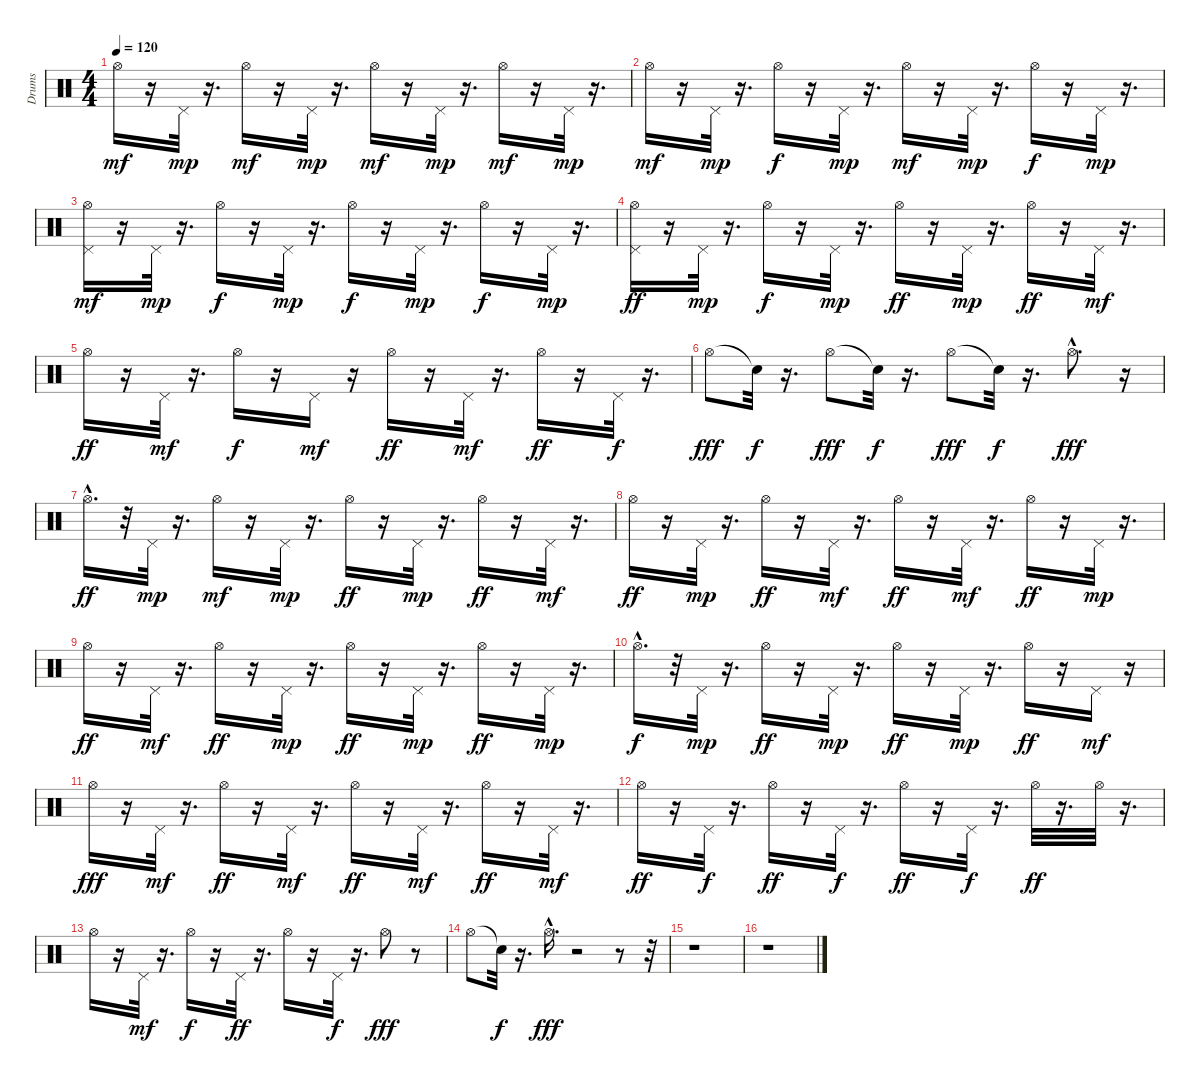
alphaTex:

\track ("Drums" "Drums") {instrument percussion}
\staff {score}
\articulation defaults
\ts (4 4)
\tempo 120
\clef neutral
\ks c "Hi-Hat (open)".16{dy mf}
r.16 "Pedal Hi-Hat (hit)".32{dy mp} r.16{d} "Hi-Hat (open)".16{dy mf} r.16 "Pedal Hi-Hat (hit)".32{dy mp} r.16{d} "Hi-Hat (open)".16{dy mf} r.16 "Pedal Hi-Hat (hit)".32{dy mp} r.16{d} "Hi-Hat (open)".16{dy mf} r.16 "Pedal Hi-Hat (hit)".32{dy mp} r.16{d} |
"Hi-Hat (open)".16{dy mf} r.16 "Pedal Hi-Hat (hit)".32{dy mp} r.16{d} "Hi-Hat (open)".16{dy f} r.16 "Pedal Hi-Hat (hit)".32{dy mp} r.16{d} "Hi-Hat (open)".16{dy mf} r.16 "Pedal Hi-Hat (hit)".32{dy mp} r.16{d} "Hi-Hat (open)".16{dy f} r.16 "Pedal Hi-Hat (hit)".32{dy mp} r.16{d} |
("Pedal Hi-Hat (hit)" "Hi-Hat (open)").16{dy mf} r.16 "Pedal Hi-Hat (hit)".32{dy mp} r.16{d} "Hi-Hat (open)".16{dy f} r.16 "Pedal Hi-Hat (hit)".32{dy mp} r.16{d} "Hi-Hat (open)".16{dy f} r.16 "Pedal Hi-Hat (hit)".32{dy mp} r.16{d} "Hi-Hat (open)".16{dy f} r.16 "Pedal Hi-Hat (hit)".32{dy mp} r.16{d} |
("Pedal Hi-Hat (hit)" "Hi-Hat (open)").16{dy ff} r.16 "Pedal Hi-Hat (hit)".32{dy mp} r.16{d} "Hi-Hat (open)".16{dy f} r.16 "Pedal Hi-Hat (hit)".32{dy mp} r.16{d} "Hi-Hat (open)".16{dy ff} r.16 "Pedal Hi-Hat (hit)".32{dy mp} r.16{d} "Hi-Hat (open)".16{dy ff} r.16 "Pedal Hi-Hat (hit)".32{dy mf} r.16{d} |
"Hi-Hat (open)".16{dy ff} r.16 "Pedal Hi-Hat (hit)".32{dy mf} r.16{d} "Hi-Hat (open)".16{dy f} r.16 "Pedal Hi-Hat (hit)".16{dy mf} r.16 "Hi-Hat (open)".16{dy ff} r.16 "Pedal Hi-Hat (hit)".32{dy mf} r.16{d} "Hi-Hat (open)".16{dy ff} r.16 "Pedal Hi-Hat (hit)".32{dy f} r.16{d} |
"Hi-Hat (open)".8{dy fff} "Snare (hit)"{t}.32{dy f} r.16{d} "Hi-Hat (open)".8{dy fff} "Snare (hit)"{t}.32{dy f} r.16{d} "Hi-Hat (open)".8{dy fff} "Snare (hit)"{t}.32{dy f} r.16{d} "Hi-Hat (open)"{hac}.8{d dy fff} r.16 |
"Hi-Hat (open)"{hac}.16{d dy ff} r.32 "Pedal Hi-Hat (hit)".32{dy mp} r.16{d} "Hi-Hat (open)".16{dy mf} r.16 "Pedal Hi-Hat (hit)".32{dy mp} r.16{d} "Hi-Hat (open)".16{dy ff} r.16 "Pedal Hi-Hat (hit)".32{dy mp} r.16{d} "Hi-Hat (open)".16{dy ff} r.16 "Pedal Hi-Hat (hit)".32{dy mf} r.16{d} |
"Hi-Hat (open)".16{dy ff} r.16 "Pedal Hi-Hat (hit)".32{dy mp} r.16{d} "Hi-Hat (open)".16{dy ff} r.16 "Pedal Hi-Hat (hit)".32{dy mf} r.16{d} "Hi-Hat (open)".16{dy ff} r.16 "Pedal Hi-Hat (hit)".32{dy mf} r.16{d} "Hi-Hat (open)".16{dy ff} r.16 "Pedal Hi-Hat (hit)".32{dy mp} r.16{d} |
"Hi-Hat (open)".16{dy ff} r.16 "Pedal Hi-Hat (hit)".32{dy mf} r.16{d} "Hi-Hat (open)".16{dy ff} r.16 "Pedal Hi-Hat (hit)".32{dy mp} r.16{d} "Hi-Hat (open)".16{dy ff} r.16 "Pedal Hi-Hat (hit)".32{dy mp} r.16{d} "Hi-Hat (open)".16{dy ff} r.16 "Pedal Hi-Hat (hit)".32{dy mp} r.16{d} |
"Hi-Hat (open)"{hac}.16{d dy f} r.32 "Pedal Hi-Hat (hit)".32{dy mp} r.16{d} "Hi-Hat (open)".16{dy ff} r.16 "Pedal Hi-Hat (hit)".32{dy mp} r.16{d} "Hi-Hat (open)".16{dy ff} r.16 "Pedal Hi-Hat (hit)".32{dy mp} r.16{d} "Hi-Hat (open)".16{dy ff} r.16 "Pedal Hi-Hat (hit)".16{dy mf} r.16 |
"Hi-Hat (open)".16{dy fff} r.16 "Pedal Hi-Hat (hit)".32{dy mf} r.16{d} "Hi-Hat (open)".16{dy ff} r.16 "Pedal Hi-Hat (hit)".32{dy mf} r.16{d} "Hi-Hat (open)".16{dy ff} r.16 "Pedal Hi-Hat (hit)".32{dy mf} r.16{d} "Hi-Hat (open)".16{dy ff} r.16 "Pedal Hi-Hat (hit)".32{dy mf} r.16{d} |
"Hi-Hat (open)".16{dy ff} r.16 "Pedal Hi-Hat (hit)".32{dy f} r.16{d} "Hi-Hat (open)".16{dy ff} r.16 "Pedal Hi-Hat (hit)".32{dy f} r.16{d} "Hi-Hat (open)".16{dy ff} r.16 "Pedal Hi-Hat (hit)".32{dy f} r.16{d} "Hi-Hat (open)".32{dy ff} r.16{d} "Hi-Hat (open)".32 r.16{d} |
"Hi-Hat (open)".16 r.16 "Pedal Hi-Hat (hit)".32{dy mf} r.16{d} "Hi-Hat (open)".16{dy f} r.16 "Pedal Hi-Hat (hit)".32{dy ff} r.16{d} "Hi-Hat (open)".16 r.16 "Pedal Hi-Hat (hit)".32{dy f} r.16{d} "Hi-Hat (open)".8{dy fff} r.8 |
"Hi-Hat (open)".8 "Snare (hit)"{t}.32{dy f} r.16{d} "Hi-Hat (open)"{hac}.16{d dy fff} r.2 r.8 r.32 |
r.1 |
r.1
